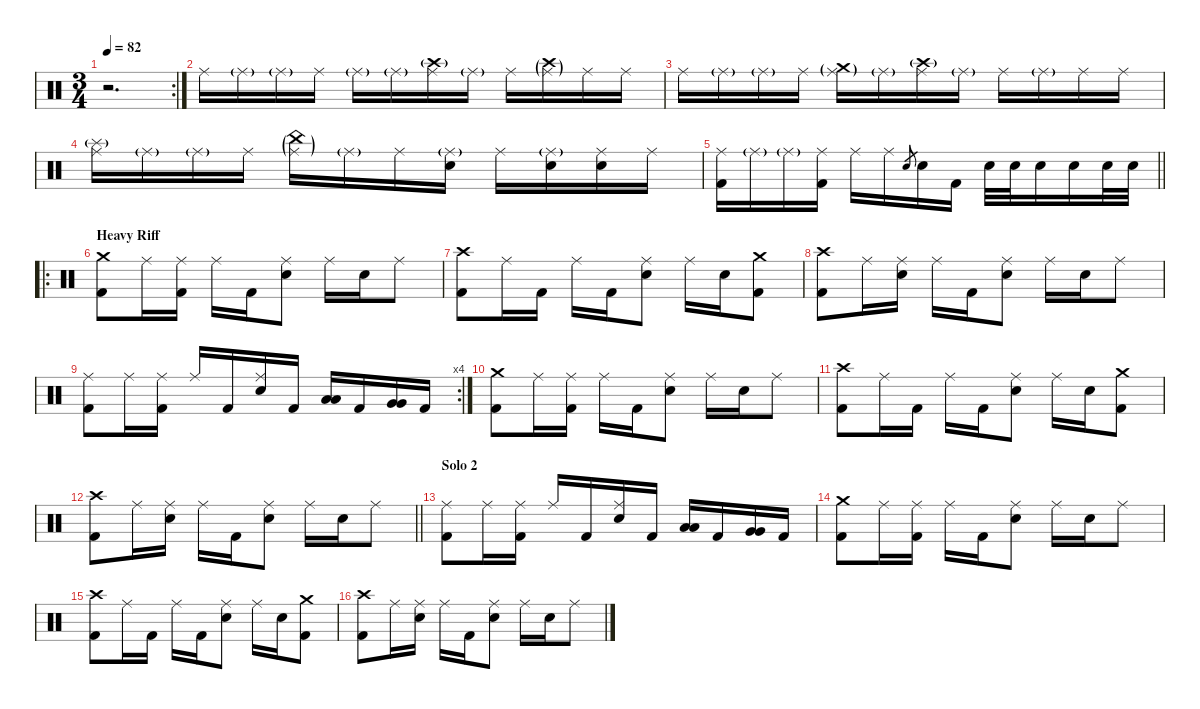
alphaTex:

\defaultSystemsLayout 4
\hideDynamics
\bracketExtendMode nobrackets
\singleTrackTrackNamePolicy hidden
\multiTrackTrackNamePolicy hidden
\firstSystemTrackNameMode fullname
\otherSystemsTrackNameOrientation horizontal
\track ("Drums" "drm.") {defaultSystemsLayout 4 instrument percussion}
\staff {score}
\articulation defaults
\rc 2
\ts (3 4)
\tempo 82
\clef neutral
\ks c
r.2{d dy fff beam Down} |
"Ride (middle)".16{dy f beam Down} "Ride (middle)"{g}.16{dy mf beam Down} "Ride (middle)"{g}.16{beam Down} "Ride (middle)".16{dy f beam Down} "Ride (middle)"{g}.16{dy mf beam Down} "Ride (middle)"{g}.16{beam Down} ("Ride (middle)" "Crash high (hit)"{g}).16{dy f beam Down} "Ride (middle)"{g}.16{dy mf beam Down} "Ride (middle)".16{dy f beam Down} ("Ride (middle)"{g} "Crash high (hit)"{g}).16{dy mf beam Down} "Ride (middle)".16{dy f beam Down} "Ride (middle)".16{beam Down} |
"Ride (middle)".16{beam Down} "Ride (middle)"{g}.16{dy mf beam Down} "Ride (middle)"{g}.16{beam Down} "Ride (middle)".16{dy f beam Down} ("Ride (middle)"{g} "Crash medium (hit)"{g}).16{dy mf beam Down} "Ride (middle)"{g}.16{beam Down} ("Ride (middle)" "Crash high (hit)"{g}).16{dy f beam Down} "Ride (middle)"{g}.16{dy mf beam Down} "Ride (middle)".16{dy f beam Down} "Ride (middle)"{g}.16{dy mf beam Down} "Ride (middle)".16{dy f beam Down} "Ride (middle)".16{beam Down} |
("Ride (middle)" "Splash (hit)"{g}).16{beam Down} "Ride (middle)"{g}.16{dy mf beam Down} "Ride (middle)"{g}.16{beam Down} "Ride (middle)".16{dy f beam Down} ("Ride (middle)"{g} "China (hit)"{g}).16{dy mf beam Down} "Ride (middle)"{g}.16{beam Down} "Ride (middle)".16{dy f beam Down} ("Ride (middle)"{g} "Snare (hit) 2").16{dy fff beam Down} "Ride (middle)".16{dy f beam Down} ("Ride (middle)"{g} "Snare (hit) 2").16{dy fff beam Down} ("Ride (middle)" "Snare (hit) 2").16{dy f beam Down} "Ride (middle)".16{beam Down} |
\barLineRight lightlight
("Ride (middle)" "Kick (hit) 2").16{beam Down} "Ride (middle)"{g}.16{dy mf beam Down} "Ride (middle)"{g}.16{beam Down} ("Ride (middle)" "Kick (hit) 2").16{dy f beam Down} "Ride (middle)".16{beam Down} "Ride (middle)".16{beam Down} "Electric Snare (hit)".8{gr dy mf beam Up} "Snare (hit) 2".16{dy f beam Down} "Kick (hit) 2".16{dy fff beam Down} "Snare (hit) 2".32{dy f beam Down} "Snare (hit) 2".32{beam Down} "Snare (hit) 2".16{beam Down} "Snare (hit) 2".16{beam Down} "Snare (hit) 2".32{dy fff beam Down} "Snare (hit) 2".32{beam Down} |
\ro
\section ("" "Heavy Riff")
("Crash medium (hit)" "Kick (hit) 2").8{dy f beam Down} "Ride (middle)".16{beam Down} ("Ride (middle)" "Kick (hit) 2").16{beam Down} "Ride (middle)".16{beam Down} "Kick (hit) 2".16{beam Down} ("Ride (middle)" "Snare (hit) 2").8{beam Down} "Ride (middle)".16{beam Down} "Snare (hit) 2".16{beam Down} "Ride (middle)".8{beam Down} |
("Crash high (hit)" "Kick (hit) 2").8{beam Down} "Ride (middle)".16{beam Down} "Kick (hit) 2".16{beam Down} "Ride (middle)".16{beam Down} "Kick (hit) 2".16{beam Down} ("Ride (middle)" "Snare (hit) 2").8{beam Down} "Ride (middle)".16{beam Down} "Snare (hit) 2".16{dy fff beam Down} ("Crash medium (hit)" "Kick (hit) 2").8{dy f beam Down} |
("Crash high (hit)" "Kick (hit) 2").8{beam Down} "Ride (middle)".16{beam Down} ("Ride (middle)" "Snare (hit) 2").16{beam Down} "Ride (middle)".16{beam Down} "Kick (hit) 2".16{beam Down} ("Ride (middle)" "Snare (hit) 2").8{beam Down} "Ride (middle)".16{beam Down} "Snare (hit) 2".16{beam Down} "Ride (middle)".8{beam Down} |
\rc 4
("Ride (middle)" "Kick (hit) 2").8{beam Down} "Ride (middle)".16{beam Down} ("Ride (middle)" "Kick (hit) 2").16{beam Down} "Ride (middle)".16{beam Up} "Kick (hit) 2".16{beam Up} ("Ride (middle)" "Snare (hit) 2").16{beam Up} "Kick (hit) 2".16{beam Up} ("Low Tom (hit)" "Low Tom (hit)").16{beam Up} "Kick (hit) 2".16{beam Up} ("Very Low Tom (hit)" "Very Low Tom (hit)").16{beam Up} "Kick (hit) 2".16{beam Up} |
("Crash medium (hit)" "Kick (hit) 2").8{beam Down} "Ride (middle)".16{beam Down} ("Ride (middle)" "Kick (hit) 2").16{beam Down} "Ride (middle)".16{beam Down} "Kick (hit) 2".16{beam Down} ("Ride (middle)" "Snare (hit) 2").8{beam Down} "Ride (middle)".16{beam Down} "Snare (hit) 2".16{beam Down} "Ride (middle)".8{beam Down} |
("Crash high (hit)" "Kick (hit) 2").8{beam Down} "Ride (middle)".16{beam Down} "Kick (hit) 2".16{beam Down} "Ride (middle)".16{beam Down} "Kick (hit) 2".16{beam Down} ("Ride (middle)" "Snare (hit) 2").8{beam Down} "Ride (middle)".16{beam Down} "Snare (hit) 2".16{dy fff beam Down} ("Crash medium (hit)" "Kick (hit) 2").8{dy f beam Down} |
\barLineRight lightlight
("Crash high (hit)" "Kick (hit) 2").8{beam Down} "Ride (middle)".16{beam Down} ("Ride (middle)" "Snare (hit) 2").16{beam Down} "Ride (middle)".16{beam Down} "Kick (hit) 2".16{beam Down} ("Ride (middle)" "Snare (hit) 2").8{beam Down} "Ride (middle)".16{beam Down} "Snare (hit) 2".16{beam Down} "Ride (middle)".8{beam Down} |
\section ("" "Solo 2")
("Ride (middle)" "Kick (hit) 2").8{beam Down} "Ride (middle)".16{beam Down} ("Ride (middle)" "Kick (hit) 2").16{beam Down} "Ride (middle)".16{beam Up} "Kick (hit) 2".16{beam Up} ("Ride (middle)" "Snare (hit) 2").16{beam Up} "Kick (hit) 2".16{beam Up} ("Low Tom (hit)" "Low Tom (hit)").16{beam Up} "Kick (hit) 2".16{beam Up} ("Very Low Tom (hit)" "Very Low Tom (hit)").16{beam Up} "Kick (hit) 2".16{beam Up} |
("Crash medium (hit)" "Kick (hit) 2").8{beam Down} "Ride (middle)".16{beam Down} ("Ride (middle)" "Kick (hit) 2").16{beam Down} "Ride (middle)".16{beam Down} "Kick (hit) 2".16{beam Down} ("Ride (middle)" "Snare (hit) 2").8{beam Down} "Ride (middle)".16{beam Down} "Snare (hit) 2".16{beam Down} "Ride (middle)".8{beam Down} |
("Crash high (hit)" "Kick (hit) 2").8{beam Down} "Ride (middle)".16{beam Down} "Kick (hit) 2".16{beam Down} "Ride (middle)".16{beam Down} "Kick (hit) 2".16{beam Down} ("Ride (middle)" "Snare (hit) 2").8{beam Down} "Ride (middle)".16{beam Down} "Snare (hit) 2".16{dy fff beam Down} ("Crash medium (hit)" "Kick (hit) 2").8{dy f beam Down} |
("Crash high (hit)" "Kick (hit) 2").8{beam Down} "Ride (middle)".16{beam Down} ("Ride (middle)" "Snare (hit) 2").16{beam Down} "Ride (middle)".16{beam Down} "Kick (hit) 2".16{beam Down} ("Ride (middle)" "Snare (hit) 2").8{beam Down} "Ride (middle)".16{beam Down} "Snare (hit) 2".16{beam Down} "Ride (middle)".8{beam Down}
